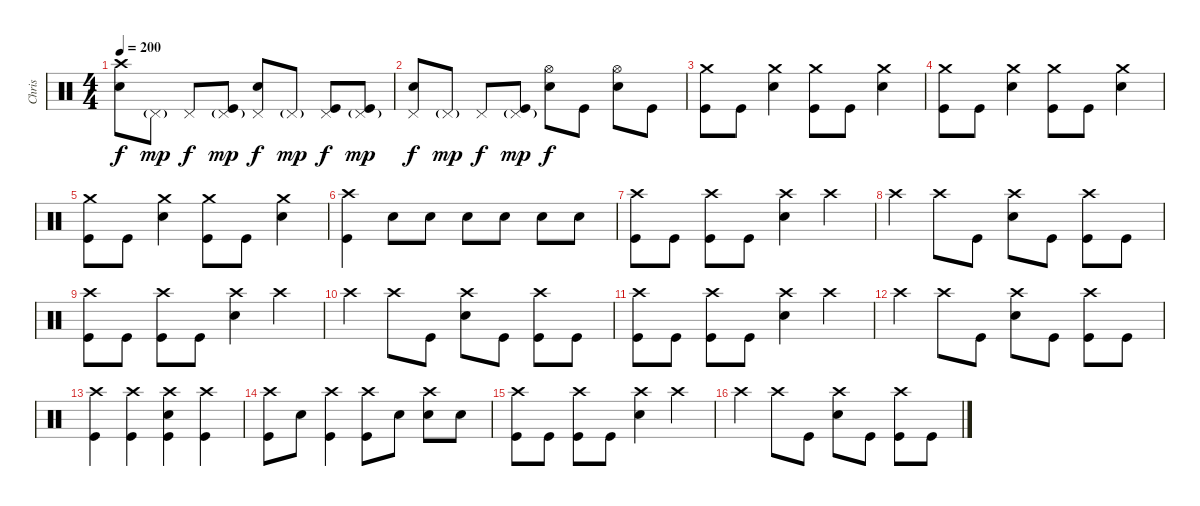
\track ("Chris" "Chris") {instrument percussion}
\staff {score}
\articulation defaults
\ts (4 4)
\tempo 200
\clef neutral
\ks c
("Crash high (hit)" "Electric Snare (hit)").8{dy f} "Pedal Hi-Hat (hit)"{g}.8{dy mp} "Pedal Hi-Hat (hit)".8{dy f} ("Pedal Hi-Hat (hit)"{g} "Kick (hit)").8{dy mp} ("Pedal Hi-Hat (hit)" "Electric Snare (hit)").8{dy f} "Pedal Hi-Hat (hit)"{g}.8{dy mp} ("Pedal Hi-Hat (hit)" "Kick (hit)").8{dy f} ("Pedal Hi-Hat (hit)"{g} "Kick (hit)").8{dy mp} |
("Pedal Hi-Hat (hit)" "Electric Snare (hit)").8{dy f} "Pedal Hi-Hat (hit)"{g}.8{dy mp} "Pedal Hi-Hat (hit)".8{dy f} ("Pedal Hi-Hat (hit)"{g} "Kick (hit)").8{dy mp} ("Hi-Hat (open)" "Electric Snare (hit)").8{dy f} "Kick (hit)".8 ("Hi-Hat (open)" "Electric Snare (hit)").8 "Kick (hit)".8 |
("Crash medium (hit)" "Kick (hit)").8 "Kick (hit)".8 ("Crash medium (hit)" "Electric Snare (hit)").4 ("Crash medium (hit)" "Kick (hit)").8 "Kick (hit)".8 ("Crash medium (hit)" "Electric Snare (hit)").4 |
("Crash medium (hit)" "Kick (hit)").8 "Kick (hit)".8 ("Crash medium (hit)" "Electric Snare (hit)").4 ("Crash medium (hit)" "Kick (hit)").8 "Kick (hit)".8 ("Crash medium (hit)" "Electric Snare (hit)").4 |
("Crash medium (hit)" "Kick (hit)").8 "Kick (hit)".8 ("Crash medium (hit)" "Electric Snare (hit)").4 ("Crash medium (hit)" "Kick (hit)").8 "Kick (hit)".8 ("Crash medium (hit)" "Electric Snare (hit)").4 |
("Crash high (hit)" "Kick (hit)").4 "Electric Snare (hit)".8 "Electric Snare (hit)".8 "Electric Snare (hit)".8 "Electric Snare (hit)".8 "Electric Snare (hit)".8 "Electric Snare (hit)".8 |
("Crash high (hit)" "Kick (hit)").8 "Kick (hit)".8 ("Crash high (hit)" "Kick (hit)").8 "Kick (hit)".8 ("Crash high (hit)" "Electric Snare (hit)").4 "Crash high (hit)".4 |
"Crash high (hit)".4 "Crash high (hit)".8 "Kick (hit)".8 ("Crash high (hit)" "Electric Snare (hit)").8 "Kick (hit)".8 ("Crash high (hit)" "Kick (hit)").8 "Kick (hit)".8 |
("Crash high (hit)" "Kick (hit)").8 "Kick (hit)".8 ("Crash high (hit)" "Kick (hit)").8 "Kick (hit)".8 ("Crash high (hit)" "Electric Snare (hit)").4 "Crash high (hit)".4 |
"Crash high (hit)".4 "Crash high (hit)".8 "Kick (hit)".8 ("Crash high (hit)" "Electric Snare (hit)").8 "Kick (hit)".8 ("Crash high (hit)" "Kick (hit)").8 "Kick (hit)".8 |
("Crash high (hit)" "Kick (hit)").8 "Kick (hit)".8 ("Crash high (hit)" "Kick (hit)").8 "Kick (hit)".8 ("Crash high (hit)" "Electric Snare (hit)").4 "Crash high (hit)".4 |
"Crash high (hit)".4 "Crash high (hit)".8 "Kick (hit)".8 ("Crash high (hit)" "Electric Snare (hit)").8 "Kick (hit)".8 ("Crash high (hit)" "Kick (hit)").8 "Kick (hit)".8 |
("Crash high (hit)" "Kick (hit)").4 ("Crash high (hit)" "Kick (hit)").4 ("Crash high (hit)" "Electric Snare (hit)" "Kick (hit)").4 ("Crash high (hit)" "Kick (hit)").4 |
("Crash high (hit)" "Kick (hit)").8 "Electric Snare (hit)".8 ("Crash high (hit)" "Kick (hit)").4 ("Crash high (hit)" "Kick (hit)").8 "Electric Snare (hit)".8 ("Crash high (hit)" "Electric Snare (hit)").8 "Electric Snare (hit)".8 |
("Crash high (hit)" "Kick (hit)").8 "Kick (hit)".8 ("Crash high (hit)" "Kick (hit)").8 "Kick (hit)".8 ("Crash high (hit)" "Electric Snare (hit)").4 "Crash high (hit)".4 |
"Crash high (hit)".4 "Crash high (hit)".8 "Kick (hit)".8 ("Crash high (hit)" "Electric Snare (hit)").8 "Kick (hit)".8 ("Crash high (hit)" "Kick (hit)").8 "Kick (hit)".8
